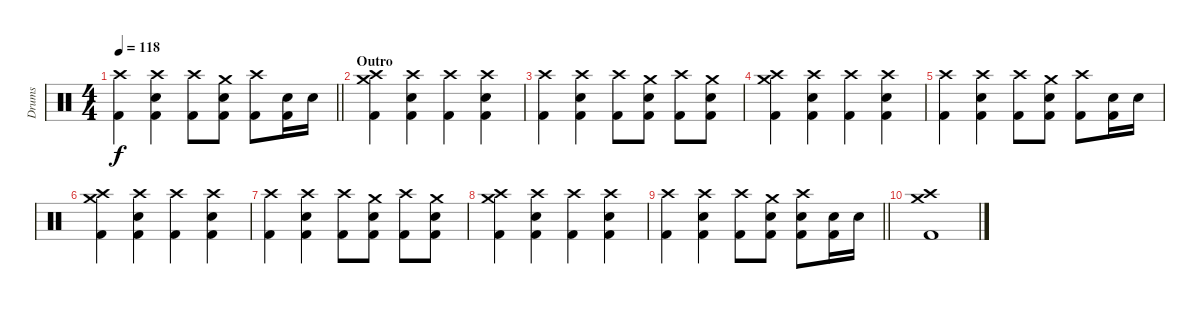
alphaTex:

\track ("Drums" "Drums") {instrument percussion}
\staff {score}
\articulation defaults
\ts (4 4)
\tempo 118
\clef neutral
\barLineRight lightlight
\ks c
("Crash high (hit)" "Kick (hit) 2").4{dy f} ("Crash high (hit)" "Snare (hit) 2" "Kick (hit) 2").4 ("Crash high (hit)" "Kick (hit) 2").8 ("Crash medium (hit)" "Snare (hit) 2" "Kick (hit) 2").8 ("Crash high (hit)" "Kick (hit) 2").8 ("Snare (hit) 2" "Kick (hit) 2").16 "Snare (hit) 2".16 |
\section ("" "Outro")
("Crash medium (hit)" "Crash high (hit)" "Kick (hit) 2").4 ("Crash high (hit)" "Snare (hit) 2" "Kick (hit) 2").4 ("Crash high (hit)" "Kick (hit) 2").4 ("Crash high (hit)" "Snare (hit) 2" "Kick (hit) 2").4 |
("Crash high (hit)" "Kick (hit) 2").4 ("Crash high (hit)" "Snare (hit) 2" "Kick (hit) 2").4 ("Crash high (hit)" "Kick (hit) 2").8 ("Crash medium (hit)" "Snare (hit) 2" "Kick (hit) 2").8 ("Crash high (hit)" "Kick (hit) 2").8 ("Crash medium (hit)" "Snare (hit) 2" "Kick (hit) 2").8 |
("Crash medium (hit)" "Crash high (hit)" "Kick (hit) 2").4 ("Crash high (hit)" "Snare (hit) 2" "Kick (hit) 2").4 ("Crash high (hit)" "Kick (hit) 2").4 ("Crash high (hit)" "Snare (hit) 2" "Kick (hit) 2").4 |
("Crash high (hit)" "Kick (hit) 2").4 ("Crash high (hit)" "Snare (hit) 2" "Kick (hit) 2").4 ("Crash high (hit)" "Kick (hit) 2").8 ("Crash medium (hit)" "Snare (hit) 2" "Kick (hit) 2").8 ("Crash high (hit)" "Kick (hit) 2").8 ("Snare (hit) 2" "Kick (hit) 2").16 "Snare (hit) 2".16 |
("Crash medium (hit)" "Crash high (hit)" "Kick (hit) 2").4 ("Crash high (hit)" "Snare (hit) 2" "Kick (hit) 2").4 ("Crash high (hit)" "Kick (hit) 2").4 ("Crash high (hit)" "Snare (hit) 2" "Kick (hit) 2").4 |
("Crash high (hit)" "Kick (hit) 2").4 ("Crash high (hit)" "Snare (hit) 2" "Kick (hit) 2").4 ("Crash high (hit)" "Kick (hit) 2").8 ("Crash medium (hit)" "Snare (hit) 2" "Kick (hit) 2").8 ("Crash high (hit)" "Kick (hit) 2").8 ("Crash medium (hit)" "Snare (hit) 2" "Kick (hit) 2").8 |
("Crash medium (hit)" "Crash high (hit)" "Kick (hit) 2").4 ("Crash high (hit)" "Snare (hit) 2" "Kick (hit) 2").4 ("Crash high (hit)" "Kick (hit) 2").4 ("Crash high (hit)" "Snare (hit) 2" "Kick (hit) 2").4 |
\barLineRight lightlight
("Crash high (hit)" "Kick (hit) 2").4 ("Crash high (hit)" "Snare (hit) 2" "Kick (hit) 2").4 ("Crash high (hit)" "Kick (hit) 2").8 ("Crash medium (hit)" "Snare (hit) 2" "Kick (hit) 2").8 ("Crash high (hit)" "Snare (hit) 2" "Kick (hit) 2").8 ("Snare (hit) 2" "Kick (hit) 2").16 "Snare (hit) 2".16 |
("Crash medium (hit)" "Crash high (hit)" "Kick (hit) 2").1
